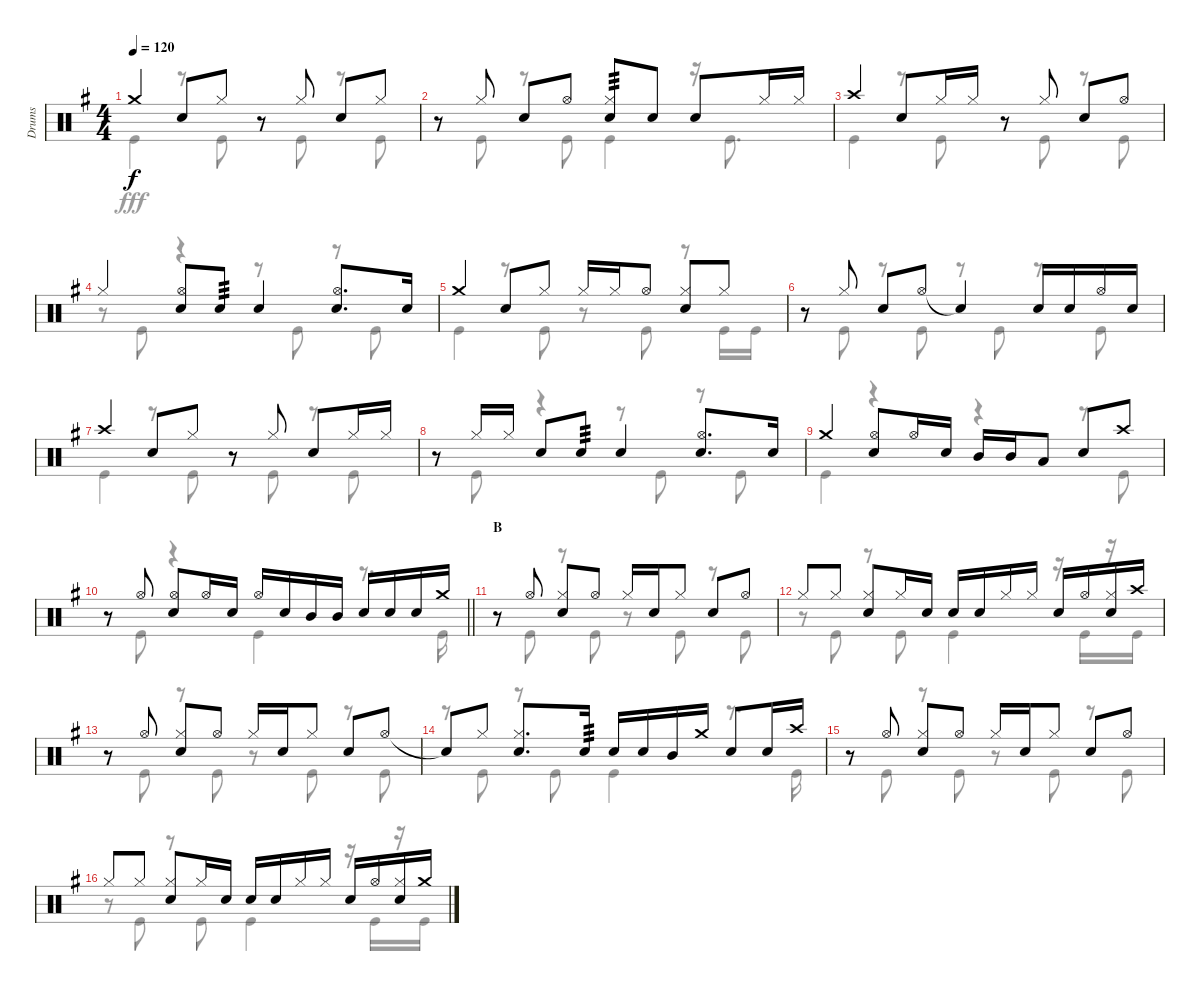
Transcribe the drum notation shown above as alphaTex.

\track ("Drums" "Drums") {instrument percussion}
\staff {score}
\articulation defaults
\voice
\ts (4 4)
\tempo 120
\clef neutral
\ks g "Crash medium (hit)".4{dy f} "Snare (hit) 2".8 "Hi-Hat (closed)".8
r.8 "Hi-Hat (closed)".8 "Snare (hit) 2".8 "Hi-Hat (closed)".8 |
r.8 "Hi-Hat (closed)".8 "Snare (hit) 2".8 "Hi-Hat (open)".8 ("Hi-Hat (closed)" "Snare (hit) 2").8{tp 3} "Snare (hit) 2".8 "Snare (hit) 2".8 "Hi-Hat (closed)".16 "Hi-Hat (closed)".16 |
"Crash high (hit)".4 "Snare (hit) 2".8 "Hi-Hat (closed)".16 "Hi-Hat (closed)".16 r.8 "Hi-Hat (closed)".8 "Snare (hit) 2".8 "Hi-Hat (open)".8 |
"Hi-Hat (closed)".4 ("Hi-Hat (open)" "Snare (hit) 2").8 "Snare (hit) 2".8{tp 3} "Snare (hit) 2".4 ("Hi-Hat (open)" "Snare (hit) 2").8{d} "Snare (hit) 2".16 |
"Crash medium (hit)".4 "Snare (hit) 2".8 "Hi-Hat (closed)".8 "Hi-Hat (closed)".16 "Hi-Hat (closed)".16 "Hi-Hat (open)".8 ("Hi-Hat (closed)" "Snare (hit) 2").8 "Hi-Hat (closed)".8 |
r.8 "Hi-Hat (closed)".8 "Snare (hit) 2".8 "Hi-Hat (open)".8 "Snare (hit)"{t}.4 "Snare (hit) 2".16 "Snare (hit) 2".16 "Hi-Hat (open)".16 "Snare (hit) 2".16 |
"Crash high (hit)".4 "Snare (hit) 2".8 "Hi-Hat (closed)".8 r.8 "Hi-Hat (closed)".8 "Snare (hit) 2".8 "Hi-Hat (closed)".16 "Hi-Hat (closed)".16 |
r.8 "Hi-Hat (closed)".16 "Hi-Hat (closed)".16 "Snare (hit) 2".8 "Snare (hit) 2".8{tp 3} "Snare (hit) 2".4 ("Hi-Hat (open)" "Snare (hit) 2").8{d} "Snare (hit) 2".16 |
"Crash medium (hit)".4 ("Hi-Hat (open)" "Snare (hit) 2").8 "Hi-Hat (open)".16 "Snare (hit) 2".16 "Mid Tom (hit)".16 "Mid Tom (hit)".16 "Low Tom (hit)".8 "Snare (hit) 2".8 "Crash high (hit)".8 |
\barLineRight lightlight
r.8 "Hi-Hat (open)".8 ("Hi-Hat (open)" "Snare (hit) 2").8 "Hi-Hat (open)".16 "Snare (hit) 2".16 "Hi-Hat (open)".16 "Snare (hit) 2".16 "Mid Tom (hit)".16 "Mid Tom (hit)".16 "Snare (hit) 2".16 "Snare (hit) 2".16 "Snare (hit) 2".16 "Crash medium (hit)".16 |
\section ("" "B")
r.8 "Hi-Hat (open)".8 ("Hi-Hat (closed)" "Snare (hit) 2").8 "Hi-Hat (open)".8 "Hi-Hat (closed)".16 "Snare (hit) 2".16 "Hi-Hat (closed)".8 "Snare (hit) 2".8 "Hi-Hat (open)".8 |
"Hi-Hat (closed)".8 "Hi-Hat (closed)".8 ("Hi-Hat (closed)" "Snare (hit) 2").8 "Hi-Hat (closed)".16 "Snare (hit) 2".16 "Snare (hit) 2".16 "Snare (hit) 2".16 "Hi-Hat (closed)".16 "Hi-Hat (closed)".16 "Snare (hit) 2".16 "Hi-Hat (open)".16 ("Hi-Hat (closed)" "Snare (hit) 2").16 "Crash high (hit)".16 |
r.8 "Hi-Hat (open)".8 ("Hi-Hat (closed)" "Snare (hit) 2").8 "Hi-Hat (open)".8 "Hi-Hat (closed)".16 "Snare (hit) 2".16 "Hi-Hat (closed)".8 "Snare (hit) 2".8 "Hi-Hat (open)".8 |
"Snare (hit)"{t}.8 "Hi-Hat (closed)".8 ("Hi-Hat (closed)" "Snare (hit) 2").8{d} "Snare (hit) 2".16{tp 3} "Snare (hit) 2".16 "Snare (hit) 2".16 "Mid Tom (hit)".16 "Crash medium (hit)".16 "Snare (hit) 2".8 "Snare (hit) 2".16 "Crash high (hit)".16 |
r.8 "Hi-Hat (open)".8 ("Hi-Hat (closed)" "Snare (hit) 2").8 "Hi-Hat (open)".8 "Hi-Hat (closed)".16 "Snare (hit) 2".16 "Hi-Hat (closed)".8 "Snare (hit) 2".8 "Hi-Hat (open)".8 |
"Hi-Hat (closed)".8 "Hi-Hat (closed)".8 ("Hi-Hat (closed)" "Snare (hit) 2").8 "Hi-Hat (closed)".16 "Snare (hit) 2".16 "Snare (hit) 2".16 "Snare (hit) 2".16 "Hi-Hat (closed)".16 "Hi-Hat (closed)".16 "Snare (hit) 2".16 "Hi-Hat (open)".16 ("Hi-Hat (closed)" "Snare (hit) 2").16 "Crash medium (hit)".16
\voice
\clef neutral
\ottava regular
\simile none
\ks g "Kick (hit)".4{dy fff}
r.8 "Kick (hit)".8 r.8 "Kick (hit)".8 r.8 "Kick (hit)".8 |
r.8 "Kick (hit)".8 r.8 "Kick (hit)".8 "Kick (hit)".4 r.16 "Kick (hit)".8{d} |
"Kick (hit)".4 r.8 "Kick (hit)".8 r.8 "Kick (hit)".8 r.8 "Kick (hit)".8 |
r.8 "Kick (hit)".8 r.4 r.8 "Kick (hit)".8 r.8 "Kick (hit)".8 |
"Kick (hit)".4 r.8 "Kick (hit)".8 r.8 "Kick (hit)".8 r.8 "Kick (hit)".16 "Kick (hit)".16 |
r.8 "Kick (hit)".8 r.8 "Kick (hit)".8 r.8 "Kick (hit)".8 r.8 "Kick (hit)".8 |
"Kick (hit)".4 r.8 "Kick (hit)".8 r.8 "Kick (hit)".8 r.8 "Kick (hit)".8 |
r.8 "Kick (hit)".8 r.4 r.8 "Kick (hit)".8 r.8 "Kick (hit)".8 |
"Kick (hit)".4 r.4 r.4 r.8 "Kick (hit)".8 |
\barLineRight lightlight
r.8 "Kick (hit)".8 r.4 "Kick (hit)".4 r.8{d} "Kick (hit)".16 |
r.8 "Kick (hit)".8 r.8 "Kick (hit)".8 r.8 "Kick (hit)".8 r.8 "Kick (hit)".8 |
r.8 "Kick (hit)".8 r.8 "Kick (hit)".8 "Kick (hit)".4 r.16 "Kick (hit)".16 r.16 "Kick (hit)".16 |
r.8 "Kick (hit)".8 r.8 "Kick (hit)".8 r.8 "Kick (hit)".8 r.8 "Kick (hit)".8 |
r.8 "Kick (hit)".8 r.8 "Kick (hit)".8 "Kick (hit)".4 r.8{d} "Kick (hit)".16 |
r.8 "Kick (hit)".8 r.8 "Kick (hit)".8 r.8 "Kick (hit)".8 r.8 "Kick (hit)".8 |
r.8 "Kick (hit)".8 r.8 "Kick (hit)".8 "Kick (hit)".4 r.16 "Kick (hit)".16 r.16 "Kick (hit)".16
